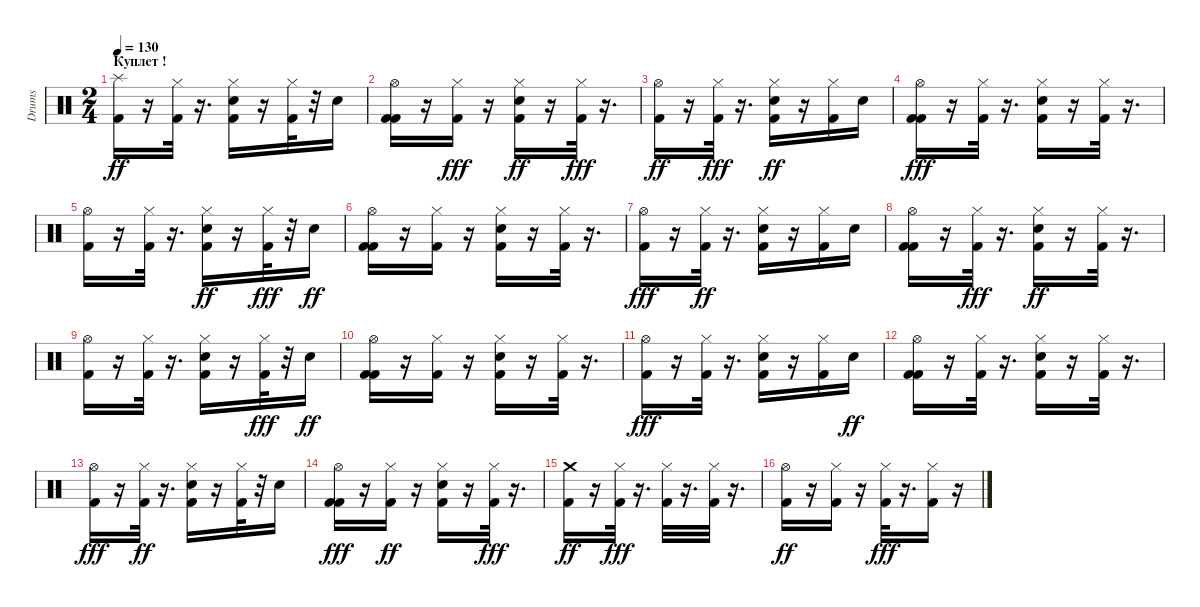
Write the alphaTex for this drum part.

\track ("Drums" "Drums") {solo instrument percussion}
\staff {score}
\articulation defaults
\ts (2 4)
\section ("" "Куплет !")
\tempo 130
\clef neutral
\ks c
("Splash (hit)" "Kick (hit) 2").16{dy ff} r.16 ("Hi-Hat (closed)" "Kick (hit) 2").32 r.16{d} ("Hi-Hat (closed)" "Snare (hit) 2" "Kick (hit) 2").16 r.16 ("Hi-Hat (closed)" "Kick (hit) 2").32 r.32 "Snare (hit) 2".16 |
("Kick (hit) 2" "Hi-Hat (open)" "Kick (hit) 2").16 r.16 ("Kick (hit) 2" "Hi-Hat (closed)").16{dy fff} r.16 ("Kick (hit) 2" "Hi-Hat (closed)" "Snare (hit) 2").16{dy ff} r.16 ("Kick (hit) 2" "Hi-Hat (closed)").32{dy fff} r.16{d} |
("Hi-Hat (open)" "Kick (hit) 2").16{dy ff} r.16 ("Kick (hit) 2" "Hi-Hat (closed)").32{dy fff} r.16{d} ("Snare (hit) 2" "Hi-Hat (closed)" "Kick (hit) 2").16{dy ff} r.16 ("Hi-Hat (closed)" "Kick (hit) 2").16 "Snare (hit) 2".16 |
("Kick (hit) 2" "Kick (hit) 2" "Hi-Hat (open)").16{dy fff} r.16 ("Kick (hit) 2" "Hi-Hat (closed)").32 r.16{d} ("Kick (hit) 2" "Snare (hit) 2" "Hi-Hat (closed)").16 r.16 ("Kick (hit) 2" "Hi-Hat (closed)").32 r.16{d} |
("Kick (hit) 2" "Hi-Hat (open)").16 r.16 ("Kick (hit) 2" "Hi-Hat (closed)").32 r.16{d} ("Snare (hit) 2" "Hi-Hat (closed)" "Kick (hit) 2").16{dy ff} r.16 ("Kick (hit) 2" "Hi-Hat (closed)").32{dy fff} r.32 "Snare (hit) 2".16{dy ff} |
("Hi-Hat (open)" "Kick (hit) 2" "Kick (hit) 2").16 r.16 ("Hi-Hat (closed)" "Kick (hit) 2").16 r.16 ("Hi-Hat (closed)" "Snare (hit) 2" "Kick (hit) 2").16 r.16 ("Hi-Hat (closed)" "Kick (hit) 2").32 r.16{d} |
("Kick (hit) 2" "Hi-Hat (open)").16{dy fff} r.16 ("Hi-Hat (closed)" "Kick (hit) 2").32{dy ff} r.16{d} ("Hi-Hat (closed)" "Snare (hit) 2" "Kick (hit) 2").16 r.16 ("Hi-Hat (closed)" "Kick (hit) 2").16 "Snare (hit) 2".16 |
("Hi-Hat (open)" "Kick (hit) 2" "Kick (hit) 2").16 r.16 ("Kick (hit) 2" "Hi-Hat (closed)").32{dy fff} r.16{d} ("Hi-Hat (closed)" "Kick (hit) 2" "Snare (hit) 2").16{dy ff} r.16 ("Hi-Hat (closed)" "Kick (hit) 2").32 r.16{d} |
("Hi-Hat (open)" "Kick (hit) 2").16 r.16 ("Hi-Hat (closed)" "Kick (hit) 2").32 r.16{d} ("Hi-Hat (closed)" "Kick (hit) 2" "Snare (hit) 2").16 r.16 ("Kick (hit) 2" "Hi-Hat (closed)").32{dy fff} r.32 "Snare (hit) 2".16{dy ff} |
("Kick (hit) 2" "Hi-Hat (open)" "Kick (hit) 2").16 r.16 ("Hi-Hat (closed)" "Kick (hit) 2").16 r.16 ("Kick (hit) 2" "Hi-Hat (closed)" "Snare (hit) 2").16 r.16 ("Hi-Hat (closed)" "Kick (hit) 2").32 r.16{d} |
("Kick (hit) 2" "Hi-Hat (open)").16{dy fff} r.16 ("Kick (hit) 2" "Hi-Hat (closed)").32 r.16{d} ("Kick (hit) 2" "Snare (hit) 2" "Hi-Hat (closed)").16 r.16 ("Kick (hit) 2" "Hi-Hat (closed)").16 "Snare (hit) 2".16{dy ff} |
("Kick (hit) 2" "Hi-Hat (open)" "Kick (hit) 2").16 r.16 ("Hi-Hat (closed)" "Kick (hit) 2").32 r.16{d} ("Snare (hit) 2" "Hi-Hat (closed)" "Kick (hit) 2").16 r.16 ("Hi-Hat (closed)" "Kick (hit) 2").32 r.16{d} |
("Kick (hit) 2" "Hi-Hat (open)").16{dy fff} r.16 ("Hi-Hat (closed)" "Kick (hit) 2").32{dy ff} r.16{d} ("Kick (hit) 2" "Hi-Hat (closed)" "Snare (hit) 2").16 r.16 ("Hi-Hat (closed)" "Kick (hit) 2").32 r.32 "Snare (hit) 2".16 |
("Kick (hit) 2" "Kick (hit) 2" "Hi-Hat (open)").16{dy fff} r.16 ("Hi-Hat (closed)" "Kick (hit) 2").16{dy ff} r.16 ("Kick (hit) 2" "Hi-Hat (closed)" "Snare (hit) 2").16 r.16 ("Kick (hit) 2" "Hi-Hat (closed)").32{dy fff} r.16{d} |
("Kick (hit) 2" "Crash medium (hit)").16{dy ff} r.16 ("Kick (hit) 2" "Hi-Hat (closed)").32{dy fff} r.16{d} ("Kick (hit) 2" "Hi-Hat (closed)").32 r.16{d} ("Kick (hit) 2" "Hi-Hat (closed)").32 r.16{d} |
("Hi-Hat (open)" "Kick (hit) 2").16{dy ff} r.16 ("Hi-Hat (closed)" "Kick (hit) 2").16 r.16 ("Kick (hit) 2" "Hi-Hat (closed)").32{dy fff} r.16{d} ("Kick (hit) 2" "Hi-Hat (closed)").16 r.16
